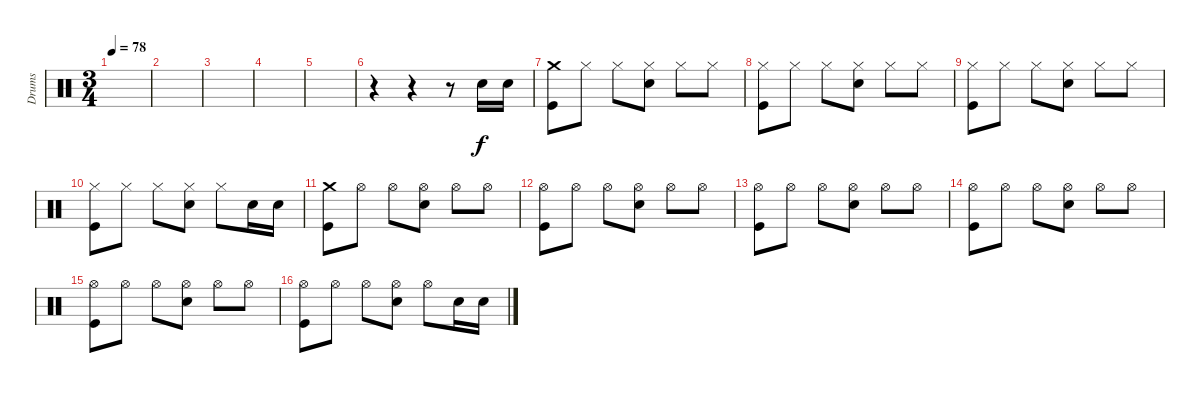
\track ("Drums" "Drums") {instrument percussion}
\staff {score}
\articulation defaults
\ts (3 4)
\tempo 78
\clef neutral
\ks c
|
|
|
|
|
r.4 r.4 r.8 "Snare (hit) 2".16 "Snare (hit) 2".16 |
("Crash medium (hit)" "Kick (hit)").8 "Hi-Hat (closed)".8 "Hi-Hat (closed)".8 ("Hi-Hat (closed)" "Snare (hit) 2").8 "Hi-Hat (closed)".8 "Hi-Hat (closed)".8 |
("Hi-Hat (closed)" "Kick (hit)").8 "Hi-Hat (closed)".8 "Hi-Hat (closed)".8 ("Hi-Hat (closed)" "Snare (hit) 2").8 "Hi-Hat (closed)".8 "Hi-Hat (closed)".8 |
("Hi-Hat (closed)" "Kick (hit)").8 "Hi-Hat (closed)".8 "Hi-Hat (closed)".8 ("Hi-Hat (closed)" "Snare (hit) 2").8 "Hi-Hat (closed)".8 "Hi-Hat (closed)".8 |
("Hi-Hat (closed)" "Kick (hit)").8 "Hi-Hat (closed)".8 "Hi-Hat (closed)".8 ("Hi-Hat (closed)" "Snare (hit) 2").8 "Hi-Hat (closed)".8 "Snare (hit) 2".16 "Snare (hit) 2".16 |
("Crash medium (hit)" "Kick (hit)").8 "Hi-Hat (open)".8 "Hi-Hat (open)".8 ("Hi-Hat (open)" "Snare (hit) 2").8 "Hi-Hat (open)".8 "Hi-Hat (open)".8 |
("Hi-Hat (open)" "Kick (hit)").8 "Hi-Hat (open)".8 "Hi-Hat (open)".8 ("Hi-Hat (open)" "Snare (hit) 2").8 "Hi-Hat (open)".8 "Hi-Hat (open)".8 |
("Hi-Hat (open)" "Kick (hit)").8 "Hi-Hat (open)".8 "Hi-Hat (open)".8 ("Hi-Hat (open)" "Snare (hit) 2").8 "Hi-Hat (open)".8 "Hi-Hat (open)".8 |
("Hi-Hat (open)" "Kick (hit)").8 "Hi-Hat (open)".8 "Hi-Hat (open)".8 ("Hi-Hat (open)" "Snare (hit) 2").8 "Hi-Hat (open)".8 "Hi-Hat (open)".8 |
("Hi-Hat (open)" "Kick (hit)").8 "Hi-Hat (open)".8 "Hi-Hat (open)".8 ("Hi-Hat (open)" "Snare (hit) 2").8 "Hi-Hat (open)".8 "Hi-Hat (open)".8 |
("Hi-Hat (open)" "Kick (hit)").8 "Hi-Hat (open)".8 "Hi-Hat (open)".8 ("Hi-Hat (open)" "Snare (hit) 2").8 "Hi-Hat (open)".8 "Snare (hit) 2".16 "Snare (hit) 2".16
